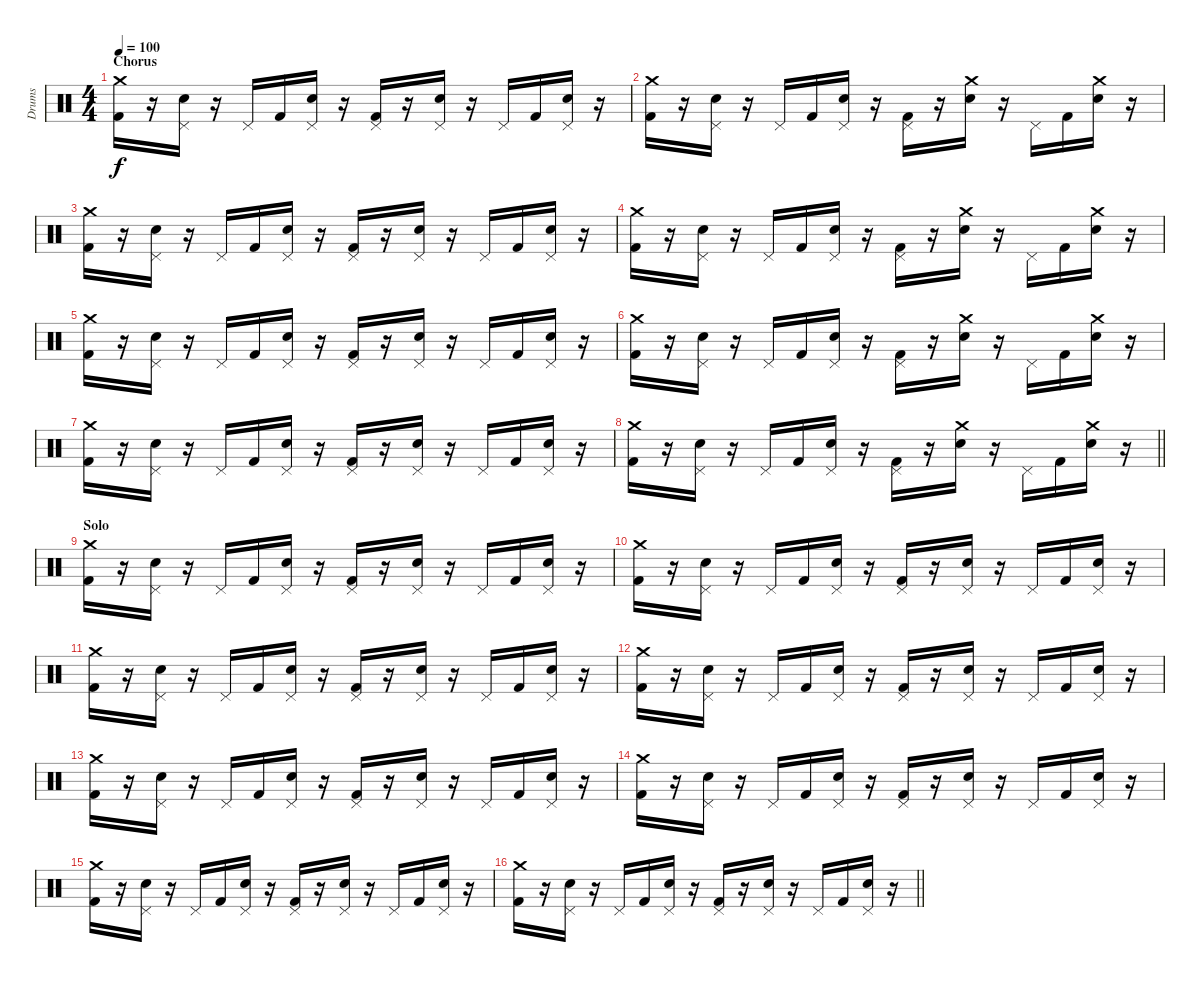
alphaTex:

\track ("Drums" "Drums") {instrument percussion}
\staff {score}
\articulation defaults
\ts (4 4)
\section ("" "Chorus")
\tempo 100
\clef neutral
\ks c
("Crash medium (hit)" "Kick (hit) 2").16{dy f} r.16 ("Pedal Hi-Hat (hit)" "Electric Snare (hit)").16 r.16 "Pedal Hi-Hat (hit)".16 "Kick (hit) 2".16 ("Pedal Hi-Hat (hit)" "Electric Snare (hit)").16 r.16 ("Pedal Hi-Hat (hit)" "Kick (hit) 2").16 r.16 ("Pedal Hi-Hat (hit)" "Electric Snare (hit)").16 r.16 "Pedal Hi-Hat (hit)".16 "Kick (hit) 2".16 ("Pedal Hi-Hat (hit)" "Electric Snare (hit)").16 r.16 |
("Crash medium (hit)" "Kick (hit) 2").16 r.16 ("Pedal Hi-Hat (hit)" "Electric Snare (hit)").16 r.16 "Pedal Hi-Hat (hit)".16 "Kick (hit) 2".16 ("Pedal Hi-Hat (hit)" "Electric Snare (hit)").16 r.16 ("Pedal Hi-Hat (hit)" "Kick (hit) 2").16 r.16 ("Crash medium (hit)" "Electric Snare (hit)").16 r.16 "Pedal Hi-Hat (hit)".16 "Kick (hit) 2".16 ("Crash medium (hit)" "Electric Snare (hit)").16 r.16 |
("Crash medium (hit)" "Kick (hit) 2").16 r.16 ("Pedal Hi-Hat (hit)" "Electric Snare (hit)").16 r.16 "Pedal Hi-Hat (hit)".16 "Kick (hit) 2".16 ("Pedal Hi-Hat (hit)" "Electric Snare (hit)").16 r.16 ("Pedal Hi-Hat (hit)" "Kick (hit) 2").16 r.16 ("Pedal Hi-Hat (hit)" "Electric Snare (hit)").16 r.16 "Pedal Hi-Hat (hit)".16 "Kick (hit) 2".16 ("Pedal Hi-Hat (hit)" "Electric Snare (hit)").16 r.16 |
("Crash medium (hit)" "Kick (hit) 2").16 r.16 ("Pedal Hi-Hat (hit)" "Electric Snare (hit)").16 r.16 "Pedal Hi-Hat (hit)".16 "Kick (hit) 2".16 ("Pedal Hi-Hat (hit)" "Electric Snare (hit)").16 r.16 ("Pedal Hi-Hat (hit)" "Kick (hit) 2").16 r.16 ("Crash medium (hit)" "Electric Snare (hit)").16 r.16 "Pedal Hi-Hat (hit)".16 "Kick (hit) 2".16 ("Crash medium (hit)" "Electric Snare (hit)").16 r.16 |
("Crash medium (hit)" "Kick (hit) 2").16 r.16 ("Pedal Hi-Hat (hit)" "Electric Snare (hit)").16 r.16 "Pedal Hi-Hat (hit)".16 "Kick (hit) 2".16 ("Pedal Hi-Hat (hit)" "Electric Snare (hit)").16 r.16 ("Pedal Hi-Hat (hit)" "Kick (hit) 2").16 r.16 ("Pedal Hi-Hat (hit)" "Electric Snare (hit)").16 r.16 "Pedal Hi-Hat (hit)".16 "Kick (hit) 2".16 ("Pedal Hi-Hat (hit)" "Electric Snare (hit)").16 r.16 |
("Crash medium (hit)" "Kick (hit) 2").16 r.16 ("Pedal Hi-Hat (hit)" "Electric Snare (hit)").16 r.16 "Pedal Hi-Hat (hit)".16 "Kick (hit) 2".16 ("Pedal Hi-Hat (hit)" "Electric Snare (hit)").16 r.16 ("Pedal Hi-Hat (hit)" "Kick (hit) 2").16 r.16 ("Crash medium (hit)" "Electric Snare (hit)").16 r.16 "Pedal Hi-Hat (hit)".16 "Kick (hit) 2".16 ("Crash medium (hit)" "Electric Snare (hit)").16 r.16 |
("Crash medium (hit)" "Kick (hit) 2").16 r.16 ("Pedal Hi-Hat (hit)" "Electric Snare (hit)").16 r.16 "Pedal Hi-Hat (hit)".16 "Kick (hit) 2".16 ("Pedal Hi-Hat (hit)" "Electric Snare (hit)").16 r.16 ("Pedal Hi-Hat (hit)" "Kick (hit) 2").16 r.16 ("Pedal Hi-Hat (hit)" "Electric Snare (hit)").16 r.16 "Pedal Hi-Hat (hit)".16 "Kick (hit) 2".16 ("Pedal Hi-Hat (hit)" "Electric Snare (hit)").16 r.16 |
\barLineRight lightlight
("Crash medium (hit)" "Kick (hit) 2").16 r.16 ("Pedal Hi-Hat (hit)" "Electric Snare (hit)").16 r.16 "Pedal Hi-Hat (hit)".16 "Kick (hit) 2".16 ("Pedal Hi-Hat (hit)" "Electric Snare (hit)").16 r.16 ("Pedal Hi-Hat (hit)" "Kick (hit) 2").16 r.16 ("Crash medium (hit)" "Electric Snare (hit)").16 r.16 "Pedal Hi-Hat (hit)".16 "Kick (hit) 2".16 ("Crash medium (hit)" "Electric Snare (hit)").16 r.16 |
\section ("" "Solo")
("Crash medium (hit)" "Kick (hit) 2").16 r.16 ("Pedal Hi-Hat (hit)" "Electric Snare (hit)").16 r.16 "Pedal Hi-Hat (hit)".16 "Kick (hit) 2".16 ("Pedal Hi-Hat (hit)" "Electric Snare (hit)").16 r.16 ("Pedal Hi-Hat (hit)" "Kick (hit) 2").16 r.16 ("Pedal Hi-Hat (hit)" "Electric Snare (hit)").16 r.16 "Pedal Hi-Hat (hit)".16 "Kick (hit) 2".16 ("Pedal Hi-Hat (hit)" "Electric Snare (hit)").16 r.16 |
("Crash medium (hit)" "Kick (hit) 2").16 r.16 ("Pedal Hi-Hat (hit)" "Electric Snare (hit)").16 r.16 "Pedal Hi-Hat (hit)".16 "Kick (hit) 2".16 ("Pedal Hi-Hat (hit)" "Electric Snare (hit)").16 r.16 ("Pedal Hi-Hat (hit)" "Kick (hit) 2").16 r.16 ("Pedal Hi-Hat (hit)" "Electric Snare (hit)").16 r.16 "Pedal Hi-Hat (hit)".16 "Kick (hit) 2".16 ("Pedal Hi-Hat (hit)" "Electric Snare (hit)").16 r.16 |
("Crash medium (hit)" "Kick (hit) 2").16 r.16 ("Pedal Hi-Hat (hit)" "Electric Snare (hit)").16 r.16 "Pedal Hi-Hat (hit)".16 "Kick (hit) 2".16 ("Pedal Hi-Hat (hit)" "Electric Snare (hit)").16 r.16 ("Pedal Hi-Hat (hit)" "Kick (hit) 2").16 r.16 ("Pedal Hi-Hat (hit)" "Electric Snare (hit)").16 r.16 "Pedal Hi-Hat (hit)".16 "Kick (hit) 2".16 ("Pedal Hi-Hat (hit)" "Electric Snare (hit)").16 r.16 |
("Crash medium (hit)" "Kick (hit) 2").16 r.16 ("Pedal Hi-Hat (hit)" "Electric Snare (hit)").16 r.16 "Pedal Hi-Hat (hit)".16 "Kick (hit) 2".16 ("Pedal Hi-Hat (hit)" "Electric Snare (hit)").16 r.16 ("Pedal Hi-Hat (hit)" "Kick (hit) 2").16 r.16 ("Pedal Hi-Hat (hit)" "Electric Snare (hit)").16 r.16 "Pedal Hi-Hat (hit)".16 "Kick (hit) 2".16 ("Pedal Hi-Hat (hit)" "Electric Snare (hit)").16 r.16 |
("Crash medium (hit)" "Kick (hit) 2").16 r.16 ("Pedal Hi-Hat (hit)" "Electric Snare (hit)").16 r.16 "Pedal Hi-Hat (hit)".16 "Kick (hit) 2".16 ("Pedal Hi-Hat (hit)" "Electric Snare (hit)").16 r.16 ("Pedal Hi-Hat (hit)" "Kick (hit) 2").16 r.16 ("Pedal Hi-Hat (hit)" "Electric Snare (hit)").16 r.16 "Pedal Hi-Hat (hit)".16 "Kick (hit) 2".16 ("Pedal Hi-Hat (hit)" "Electric Snare (hit)").16 r.16 |
("Crash medium (hit)" "Kick (hit) 2").16 r.16 ("Pedal Hi-Hat (hit)" "Electric Snare (hit)").16 r.16 "Pedal Hi-Hat (hit)".16 "Kick (hit) 2".16 ("Pedal Hi-Hat (hit)" "Electric Snare (hit)").16 r.16 ("Pedal Hi-Hat (hit)" "Kick (hit) 2").16 r.16 ("Pedal Hi-Hat (hit)" "Electric Snare (hit)").16 r.16 "Pedal Hi-Hat (hit)".16 "Kick (hit) 2".16 ("Pedal Hi-Hat (hit)" "Electric Snare (hit)").16 r.16 |
("Crash medium (hit)" "Kick (hit) 2").16 r.16 ("Pedal Hi-Hat (hit)" "Electric Snare (hit)").16 r.16 "Pedal Hi-Hat (hit)".16 "Kick (hit) 2".16 ("Pedal Hi-Hat (hit)" "Electric Snare (hit)").16 r.16 ("Pedal Hi-Hat (hit)" "Kick (hit) 2").16 r.16 ("Pedal Hi-Hat (hit)" "Electric Snare (hit)").16 r.16 "Pedal Hi-Hat (hit)".16 "Kick (hit) 2".16 ("Pedal Hi-Hat (hit)" "Electric Snare (hit)").16 r.16 |
\barLineRight lightlight
("Crash medium (hit)" "Kick (hit) 2").16 r.16 ("Pedal Hi-Hat (hit)" "Electric Snare (hit)").16 r.16 "Pedal Hi-Hat (hit)".16 "Kick (hit) 2".16 ("Pedal Hi-Hat (hit)" "Electric Snare (hit)").16 r.16 ("Pedal Hi-Hat (hit)" "Kick (hit) 2").16 r.16 ("Pedal Hi-Hat (hit)" "Electric Snare (hit)").16 r.16 "Pedal Hi-Hat (hit)".16 "Kick (hit) 2".16 ("Pedal Hi-Hat (hit)" "Electric Snare (hit)").16 r.16
